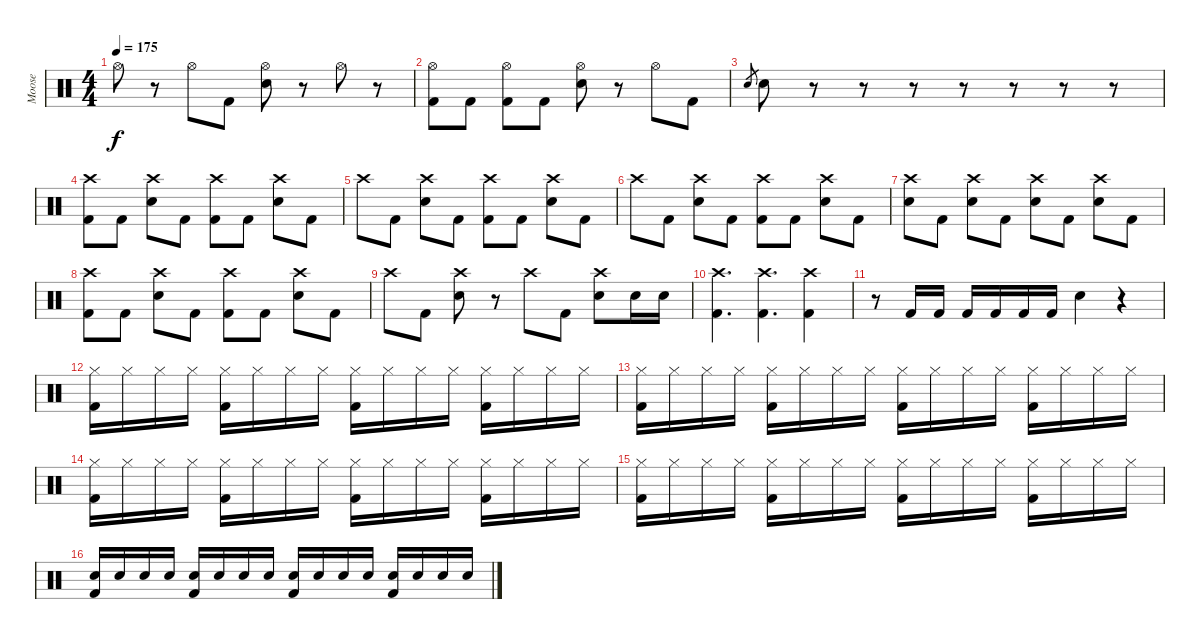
\track ("Moose" "Moose") {instrument percussion}
\staff {score}
\articulation defaults
\ts (4 4)
\tempo 175
\clef neutral
\ks c "Hi-Hat (open)".8{dy f}
r.8 "Hi-Hat (open)".8 "Kick (hit) 2".8 ("Hi-Hat (open)" "Electric Snare (hit)").8 r.8 "Hi-Hat (open)".8 r.8 |
("Hi-Hat (open)" "Kick (hit) 2").8 "Kick (hit) 2".8 ("Hi-Hat (open)" "Kick (hit) 2").8 "Kick (hit) 2".8 ("Hi-Hat (open)" "Electric Snare (hit)").8 r.8 "Hi-Hat (open)".8 "Kick (hit) 2".8 |
"Electric Snare (hit)".8{gr} "Electric Snare (hit)".8 r.8 r.8 r.8 r.8 r.8 r.8 r.8 |
("Crash high (hit)" "Kick (hit) 2").8 "Kick (hit) 2".8 ("Crash high (hit)" "Electric Snare (hit)").8 "Kick (hit) 2".8 ("Crash high (hit)" "Kick (hit) 2").8 "Kick (hit) 2".8 ("Crash high (hit)" "Electric Snare (hit)").8 "Kick (hit) 2".8 |
"Crash high (hit)".8 "Kick (hit) 2".8 ("Crash high (hit)" "Electric Snare (hit)").8 "Kick (hit) 2".8 ("Crash high (hit)" "Kick (hit) 2").8 "Kick (hit) 2".8 ("Crash high (hit)" "Electric Snare (hit)").8 "Kick (hit) 2".8 |
"Crash high (hit)".8 "Kick (hit) 2".8 ("Crash high (hit)" "Electric Snare (hit)").8 "Kick (hit) 2".8 ("Crash high (hit)" "Kick (hit) 2").8 "Kick (hit) 2".8 ("Crash high (hit)" "Electric Snare (hit)").8 "Kick (hit) 2".8 |
("Crash high (hit)" "Electric Snare (hit)").8 "Kick (hit) 2".8 ("Crash high (hit)" "Electric Snare (hit)").8 "Kick (hit) 2".8 ("Crash high (hit)" "Electric Snare (hit)").8 "Kick (hit) 2".8 ("Crash high (hit)" "Electric Snare (hit)").8 "Kick (hit) 2".8 |
("Crash high (hit)" "Kick (hit) 2").8 "Kick (hit) 2".8 ("Crash high (hit)" "Electric Snare (hit)").8 "Kick (hit) 2".8 ("Crash high (hit)" "Kick (hit) 2").8 "Kick (hit) 2".8 ("Crash high (hit)" "Electric Snare (hit)").8 "Kick (hit) 2".8 |
"Crash high (hit)".8 "Kick (hit) 2".8 ("Crash high (hit)" "Electric Snare (hit)").8 r.8 "Crash high (hit)".8 "Kick (hit) 2".8 ("Crash high (hit)" "Electric Snare (hit)").8 "Electric Snare (hit)".16 "Electric Snare (hit)".16 |
("Crash high (hit)" "Kick (hit) 2").4{d} ("Crash high (hit)" "Kick (hit) 2").4{d} ("Crash high (hit)" "Kick (hit) 2").4 |
r.8 "Kick (hit) 2".16 "Kick (hit) 2".16 "Kick (hit) 2".16 "Kick (hit) 2".16 "Kick (hit) 2".16 "Kick (hit) 2".16 "Electric Snare (hit)".4 r.4 |
("Hi-Hat (closed)" "Kick (hit) 2").16 "Hi-Hat (closed)".16 "Hi-Hat (closed)".16 "Hi-Hat (closed)".16 ("Hi-Hat (closed)" "Kick (hit) 2").16 "Hi-Hat (closed)".16 "Hi-Hat (closed)".16 "Hi-Hat (closed)".16 ("Hi-Hat (closed)" "Kick (hit) 2").16 "Hi-Hat (closed)".16 "Hi-Hat (closed)".16 "Hi-Hat (closed)".16 ("Hi-Hat (closed)" "Kick (hit) 2").16 "Hi-Hat (closed)".16 "Hi-Hat (closed)".16 "Hi-Hat (closed)".16 |
("Hi-Hat (closed)" "Kick (hit) 2").16 "Hi-Hat (closed)".16 "Hi-Hat (closed)".16 "Hi-Hat (closed)".16 ("Hi-Hat (closed)" "Kick (hit) 2").16 "Hi-Hat (closed)".16 "Hi-Hat (closed)".16 "Hi-Hat (closed)".16 ("Hi-Hat (closed)" "Kick (hit) 2").16 "Hi-Hat (closed)".16 "Hi-Hat (closed)".16 "Hi-Hat (closed)".16 ("Hi-Hat (closed)" "Kick (hit) 2").16 "Hi-Hat (closed)".16 "Hi-Hat (closed)".16 "Hi-Hat (closed)".16 |
("Hi-Hat (closed)" "Kick (hit) 2").16 "Hi-Hat (closed)".16 "Hi-Hat (closed)".16 "Hi-Hat (closed)".16 ("Hi-Hat (closed)" "Kick (hit) 2").16 "Hi-Hat (closed)".16 "Hi-Hat (closed)".16 "Hi-Hat (closed)".16 ("Hi-Hat (closed)" "Kick (hit) 2").16 "Hi-Hat (closed)".16 "Hi-Hat (closed)".16 "Hi-Hat (closed)".16 ("Hi-Hat (closed)" "Kick (hit) 2").16 "Hi-Hat (closed)".16 "Hi-Hat (closed)".16 "Hi-Hat (closed)".16 |
("Hi-Hat (closed)" "Kick (hit) 2").16 "Hi-Hat (closed)".16 "Hi-Hat (closed)".16 "Hi-Hat (closed)".16 ("Hi-Hat (closed)" "Kick (hit) 2").16 "Hi-Hat (closed)".16 "Hi-Hat (closed)".16 "Hi-Hat (closed)".16 ("Hi-Hat (closed)" "Kick (hit) 2").16 "Hi-Hat (closed)".16 "Hi-Hat (closed)".16 "Hi-Hat (closed)".16 ("Hi-Hat (closed)" "Kick (hit) 2").16 "Hi-Hat (closed)".16 "Hi-Hat (closed)".16 "Hi-Hat (closed)".16 |
("Electric Snare (hit)" "Kick (hit) 2").16{volume 9} "Electric Snare (hit)".16{volume 16} "Electric Snare (hit)".16 "Electric Snare (hit)".16 ("Electric Snare (hit)" "Kick (hit) 2").16 "Electric Snare (hit)".16 "Electric Snare (hit)".16 "Electric Snare (hit)".16 ("Electric Snare (hit)" "Kick (hit) 2").16 "Electric Snare (hit)".16 "Electric Snare (hit)".16 "Electric Snare (hit)".16 ("Electric Snare (hit)" "Kick (hit) 2").16 "Electric Snare (hit)".16 "Electric Snare (hit)".16 "Electric Snare (hit)".16
